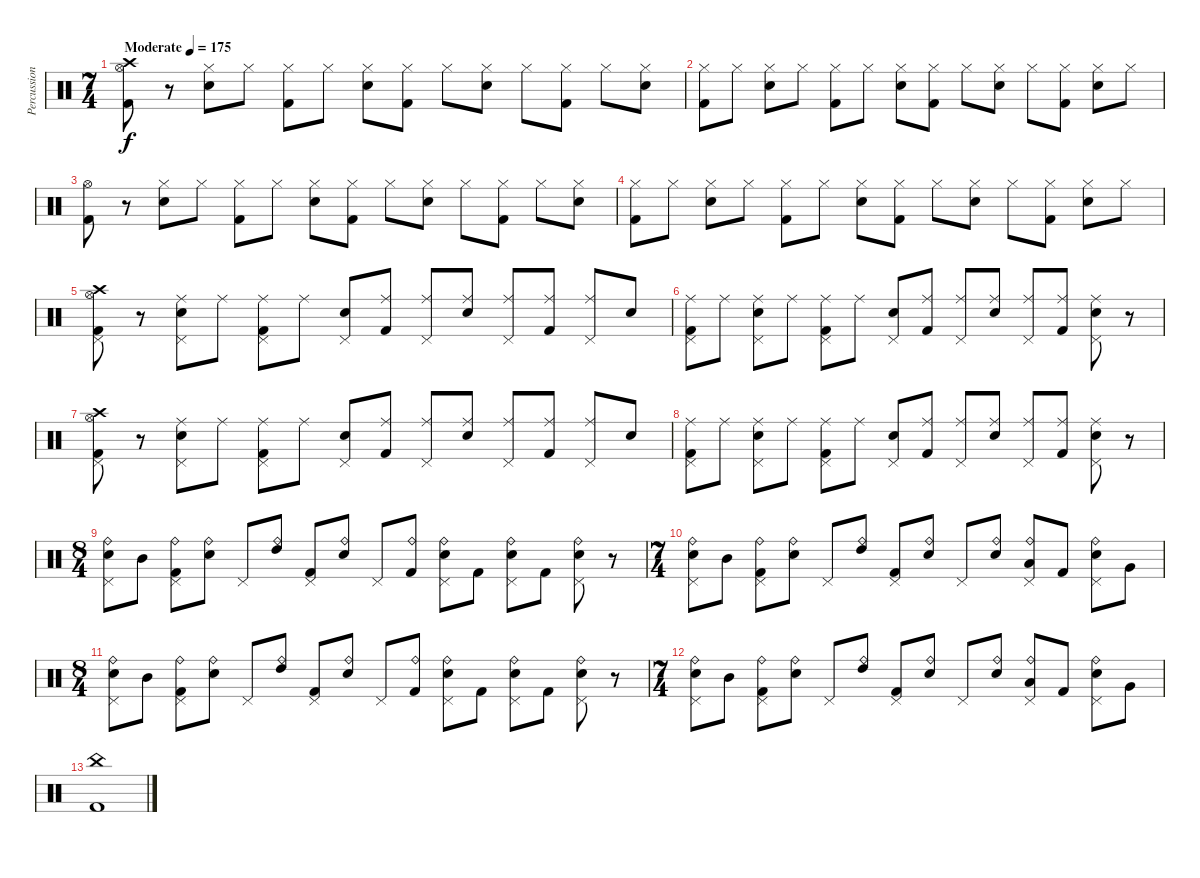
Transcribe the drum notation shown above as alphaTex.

\track ("Percussion" "Percussion") {instrument percussion}
\staff {score}
\articulation defaults
\ts (7 4)
\tempo (175 "Moderate")
\clef neutral
\ks c
("Hi-Hat (open)" "Crash high (hit)" "Kick (hit) 2").8{dy f} r.8 ("Hi-Hat (closed)" "Electric Snare (hit)").8 "Hi-Hat (closed)".8 ("Hi-Hat (closed)" "Kick (hit) 2").8 "Hi-Hat (closed)".8 ("Hi-Hat (closed)" "Electric Snare (hit)").8 ("Hi-Hat (closed)" "Kick (hit) 2").8 "Hi-Hat (closed)".8 ("Hi-Hat (closed)" "Electric Snare (hit)").8 "Hi-Hat (closed)".8 ("Hi-Hat (closed)" "Kick (hit) 2").8 "Hi-Hat (closed)".8 ("Hi-Hat (closed)" "Electric Snare (hit)").8 |
("Hi-Hat (closed)" "Kick (hit) 2").8 "Hi-Hat (closed)".8 ("Hi-Hat (closed)" "Electric Snare (hit)").8 "Hi-Hat (closed)".8 ("Hi-Hat (closed)" "Kick (hit) 2").8 "Hi-Hat (closed)".8 ("Hi-Hat (closed)" "Electric Snare (hit)").8 ("Hi-Hat (closed)" "Kick (hit) 2").8 "Hi-Hat (closed)".8 ("Hi-Hat (closed)" "Electric Snare (hit)").8 "Hi-Hat (closed)".8 ("Hi-Hat (closed)" "Kick (hit) 2").8 ("Hi-Hat (closed)" "Electric Snare (hit)").8 "Hi-Hat (closed)".8 |
("Hi-Hat (open)" "Kick (hit) 2").8 r.8 ("Hi-Hat (closed)" "Electric Snare (hit)").8 "Hi-Hat (closed)".8 ("Hi-Hat (closed)" "Kick (hit) 2").8 "Hi-Hat (closed)".8 ("Hi-Hat (closed)" "Electric Snare (hit)").8 ("Hi-Hat (closed)" "Kick (hit) 2").8 "Hi-Hat (closed)".8 ("Hi-Hat (closed)" "Electric Snare (hit)").8 "Hi-Hat (closed)".8 ("Hi-Hat (closed)" "Kick (hit) 2").8 "Hi-Hat (closed)".8 ("Hi-Hat (closed)" "Electric Snare (hit)").8 |
("Hi-Hat (closed)" "Kick (hit) 2").8 "Hi-Hat (closed)".8 ("Hi-Hat (closed)" "Electric Snare (hit)").8 "Hi-Hat (closed)".8 ("Hi-Hat (closed)" "Kick (hit) 2").8 "Hi-Hat (closed)".8 ("Hi-Hat (closed)" "Electric Snare (hit)").8 ("Hi-Hat (closed)" "Kick (hit) 2").8 "Hi-Hat (closed)".8 ("Hi-Hat (closed)" "Electric Snare (hit)").8 "Hi-Hat (closed)".8 ("Hi-Hat (closed)" "Kick (hit) 2").8 ("Hi-Hat (closed)" "Electric Snare (hit)").8 "Hi-Hat (closed)".8 |
("Hi-Hat (open)" "Crash high (hit)" "Pedal Hi-Hat (hit)" "Kick (hit) 2").8 r.8 ("Ride (middle)" "Electric Snare (hit)" "Pedal Hi-Hat (hit)").8 "Ride (middle)".8 ("Ride (middle)" "Pedal Hi-Hat (hit)" "Kick (hit) 2").8 "Ride (middle)".8 ("Electric Snare (hit)" "Pedal Hi-Hat (hit)").8 ("Ride (middle)" "Kick (hit) 2").8 ("Ride (middle)" "Pedal Hi-Hat (hit)").8 ("Ride (middle)" "Electric Snare (hit)").8 ("Ride (middle)" "Pedal Hi-Hat (hit)").8 ("Ride (middle)" "Kick (hit) 2").8 ("Ride (middle)" "Pedal Hi-Hat (hit)").8 "Electric Snare (hit)".8 |
("Ride (middle)" "Pedal Hi-Hat (hit)" "Kick (hit) 2").8 "Ride (middle)".8 ("Ride (middle)" "Electric Snare (hit)" "Pedal Hi-Hat (hit)").8 "Ride (middle)".8 ("Ride (middle)" "Pedal Hi-Hat (hit)" "Kick (hit) 2").8 "Ride (middle)".8 ("Electric Snare (hit)" "Pedal Hi-Hat (hit)").8 ("Ride (middle)" "Kick (hit) 2").8 ("Ride (middle)" "Pedal Hi-Hat (hit)").8 ("Ride (middle)" "Electric Snare (hit)").8 ("Ride (middle)" "Pedal Hi-Hat (hit)").8 ("Ride (middle)" "Kick (hit) 2").8 ("Ride (middle)" "Electric Snare (hit)" "Pedal Hi-Hat (hit)").8 r.8 |
("Hi-Hat (open)" "Crash high (hit)" "Pedal Hi-Hat (hit)" "Kick (hit) 2").8 r.8 ("Ride (middle)" "Electric Snare (hit)" "Pedal Hi-Hat (hit)").8 "Ride (middle)".8 ("Ride (middle)" "Pedal Hi-Hat (hit)" "Kick (hit) 2").8 "Ride (middle)".8 ("Electric Snare (hit)" "Pedal Hi-Hat (hit)").8 ("Ride (middle)" "Kick (hit) 2").8 ("Ride (middle)" "Pedal Hi-Hat (hit)").8 ("Ride (middle)" "Electric Snare (hit)").8 ("Ride (middle)" "Pedal Hi-Hat (hit)").8 ("Ride (middle)" "Kick (hit) 2").8 ("Ride (middle)" "Pedal Hi-Hat (hit)").8 "Electric Snare (hit)".8 |
("Ride (middle)" "Pedal Hi-Hat (hit)" "Kick (hit) 2").8 "Ride (middle)".8 ("Ride (middle)" "Electric Snare (hit)" "Pedal Hi-Hat (hit)").8 "Ride (middle)".8 ("Ride (middle)" "Pedal Hi-Hat (hit)" "Kick (hit) 2").8 "Ride (middle)".8 ("Electric Snare (hit)" "Pedal Hi-Hat (hit)").8 ("Ride (middle)" "Kick (hit) 2").8 ("Ride (middle)" "Pedal Hi-Hat (hit)").8 ("Ride (middle)" "Electric Snare (hit)").8 ("Ride (middle)" "Pedal Hi-Hat (hit)").8 ("Ride (middle)" "Kick (hit) 2").8 ("Ride (middle)" "Electric Snare (hit)" "Pedal Hi-Hat (hit)").8 r.8 |
\ts (8 4)
("Ride (bell)" "Electric Snare (hit)" "Pedal Hi-Hat (hit)").8 "Mid Tom (hit)".8 ("Ride (bell)" "Pedal Hi-Hat (hit)" "Kick (hit) 2").8 ("Ride (bell)" "Electric Snare (hit)").8 "Pedal Hi-Hat (hit)".8 ("Ride (bell)" "High Tom (hit)").8 ("Pedal Hi-Hat (hit)" "Kick (hit) 2").8 ("Ride (bell)" "Electric Snare (hit)").8 "Pedal Hi-Hat (hit)".8 ("Ride (bell)" "Kick (hit) 2").8 ("Ride (bell)" "Electric Snare (hit)" "Pedal Hi-Hat (hit)").8 "Kick (hit) 2".8 ("Ride (bell)" "Electric Snare (hit)" "Pedal Hi-Hat (hit)").8 "Kick (hit) 2".8 ("Ride (bell)" "Electric Snare (hit)" "Pedal Hi-Hat (hit)").8 r.8 |
\ts (7 4)
("Ride (bell)" "Electric Snare (hit)" "Pedal Hi-Hat (hit)").8 "Mid Tom (hit)".8 ("Ride (bell)" "Pedal Hi-Hat (hit)" "Kick (hit) 2").8 ("Ride (bell)" "Electric Snare (hit)").8 "Pedal Hi-Hat (hit)".8 ("Ride (bell)" "High Tom (hit)").8 ("Pedal Hi-Hat (hit)" "Kick (hit) 2").8 ("Ride (bell)" "Electric Snare (hit)").8 "Pedal Hi-Hat (hit)".8 ("Ride (bell)" "Electric Snare (hit)").8 ("Ride (bell)" "Low Tom (hit)" "Pedal Hi-Hat (hit)").8 "Kick (hit) 2".8 ("Ride (bell)" "Electric Snare (hit)" "Pedal Hi-Hat (hit)").8 "Very Low Tom (hit)".8 |
\ts (8 4)
("Ride (bell)" "Electric Snare (hit)" "Pedal Hi-Hat (hit)").8 "Mid Tom (hit)".8 ("Ride (bell)" "Pedal Hi-Hat (hit)" "Kick (hit) 2").8 ("Ride (bell)" "Electric Snare (hit)").8 "Pedal Hi-Hat (hit)".8 ("Ride (bell)" "High Tom (hit)").8 ("Pedal Hi-Hat (hit)" "Kick (hit) 2").8 ("Ride (bell)" "Electric Snare (hit)").8 "Pedal Hi-Hat (hit)".8 ("Ride (bell)" "Kick (hit) 2").8 ("Ride (bell)" "Electric Snare (hit)" "Pedal Hi-Hat (hit)").8 "Kick (hit) 2".8 ("Ride (bell)" "Electric Snare (hit)" "Pedal Hi-Hat (hit)").8 "Kick (hit) 2".8 ("Ride (bell)" "Electric Snare (hit)" "Pedal Hi-Hat (hit)").8 r.8 |
\ts (7 4)
("Ride (bell)" "Electric Snare (hit)" "Pedal Hi-Hat (hit)").8 "Mid Tom (hit)".8 ("Ride (bell)" "Pedal Hi-Hat (hit)" "Kick (hit) 2").8 ("Ride (bell)" "Electric Snare (hit)").8 "Pedal Hi-Hat (hit)".8 ("Ride (bell)" "High Tom (hit)").8 ("Pedal Hi-Hat (hit)" "Kick (hit) 2").8 ("Ride (bell)" "Electric Snare (hit)").8 "Pedal Hi-Hat (hit)".8 ("Ride (bell)" "Electric Snare (hit)").8 ("Ride (bell)" "Low Tom (hit)" "Pedal Hi-Hat (hit)").8 "Kick (hit) 2".8 ("Ride (bell)" "Electric Snare (hit)" "Pedal Hi-Hat (hit)").8 "Very Low Tom (hit)".8 |
("China (hit)" "Kick (hit) 2").1
